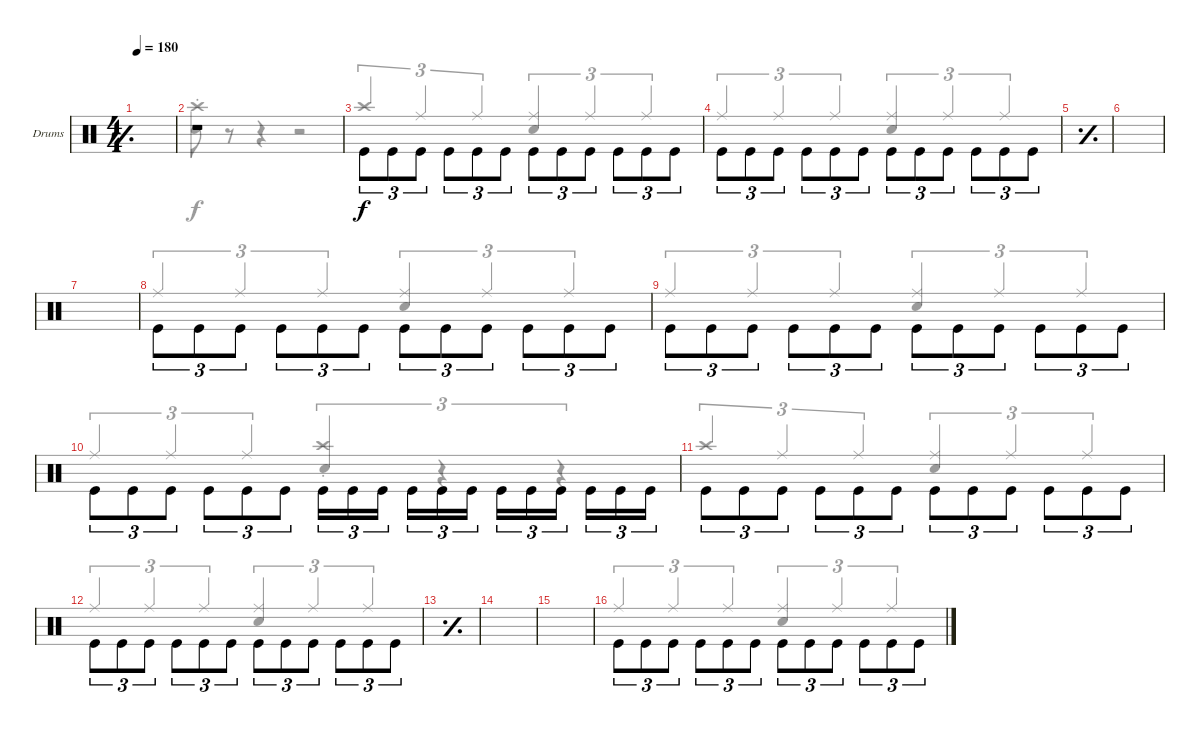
\defaultSystemsLayout 4
\bracketExtendMode groupsimilarinstruments
\multiBarRest
\firstSystemTrackNameOrientation horizontal
\otherSystemsTrackNameOrientation horizontal
\track ("Drumkit" "Drums") {instrument percussion}
\staff {score}
\articulation defaults
\voice
\ts (4 4)
\tempo 180
\clef neutral
\simile simple
\ks c
|
r.1 |
"Kick (hit)".8{tu (3 2) beam invert} "Kick (hit)".8{tu (3 2) beam invert} "Kick (hit)".8{tu (3 2) beam invert} "Kick (hit)".8{tu (3 2) beam invert} "Kick (hit)".8{tu (3 2) beam invert} "Kick (hit)".8{tu (3 2) beam invert} "Kick (hit)".8{tu (3 2) beam invert} "Kick (hit)".8{tu (3 2) beam invert} "Kick (hit)".8{tu (3 2) beam invert} "Kick (hit)".8{tu (3 2) beam invert} "Kick (hit)".8{tu (3 2) beam invert} "Kick (hit)".8{tu (3 2) beam invert} |
"Kick (hit)".8{tu (3 2) beam invert} "Kick (hit)".8{tu (3 2) beam invert} "Kick (hit)".8{tu (3 2) beam invert} "Kick (hit)".8{tu (3 2) beam invert} "Kick (hit)".8{tu (3 2) beam invert} "Kick (hit)".8{tu (3 2) beam invert} "Kick (hit)".8{tu (3 2) beam invert} "Kick (hit)".8{tu (3 2) beam invert} "Kick (hit)".8{tu (3 2) beam invert} "Kick (hit)".8{tu (3 2) beam invert} "Kick (hit)".8{tu (3 2) beam invert} "Kick (hit)".8{tu (3 2) beam invert} |
\simile simple
|
|
|
\simile none "Kick (hit)".8{tu (3 2) beam invert} "Kick (hit)".8{tu (3 2) beam invert} "Kick (hit)".8{tu (3 2) beam invert} "Kick (hit)".8{tu (3 2) beam invert} "Kick (hit)".8{tu (3 2) beam invert} "Kick (hit)".8{tu (3 2) beam invert} "Kick (hit)".8{tu (3 2) beam invert} "Kick (hit)".8{tu (3 2) beam invert} "Kick (hit)".8{tu (3 2) beam invert} "Kick (hit)".8{tu (3 2) beam invert} "Kick (hit)".8{tu (3 2) beam invert} "Kick (hit)".8{tu (3 2) beam invert}
|
"Kick (hit)".8{tu (3 2) beam invert} "Kick (hit)".8{tu (3 2) beam invert} "Kick (hit)".8{tu (3 2) beam invert} "Kick (hit)".8{tu (3 2) beam invert} "Kick (hit)".8{tu (3 2) beam invert} "Kick (hit)".8{tu (3 2) beam invert} "Kick (hit)".8{tu (3 2) beam invert} "Kick (hit)".8{tu (3 2) beam invert} "Kick (hit)".8{tu (3 2) beam invert} "Kick (hit)".8{tu (3 2) beam invert} "Kick (hit)".8{tu (3 2) beam invert} "Kick (hit)".8{tu (3 2) beam invert} |
"Kick (hit)".8{tu (3 2) beam invert} "Kick (hit)".8{tu (3 2) beam invert} "Kick (hit)".8{tu (3 2) beam invert} "Kick (hit)".8{tu (3 2) beam invert} "Kick (hit)".8{tu (3 2) beam invert} "Kick (hit)".8{tu (3 2) beam invert} "Kick (hit)".16{tu (3 2)} "Kick (hit)".16{tu (3 2)} "Kick (hit)".16{tu (3 2) beam invert} "Kick (hit)".16{tu (3 2) beam invert} "Kick (hit)".16{tu (3 2) beam invert} "Kick (hit)".16{tu (3 2) beam invert} "Kick (hit)".16{tu (3 2)} "Kick (hit)".16{tu (3 2)} "Kick (hit)".16{tu (3 2) beam invert} "Kick (hit)".16{tu (3 2) beam invert} "Kick (hit)".16{tu (3 2) beam invert} "Kick (hit)".16{tu (3 2) beam invert} |
"Kick (hit)".8{tu (3 2) beam invert} "Kick (hit)".8{tu (3 2) beam invert} "Kick (hit)".8{tu (3 2) beam invert} "Kick (hit)".8{tu (3 2) beam invert} "Kick (hit)".8{tu (3 2) beam invert} "Kick (hit)".8{tu (3 2) beam invert} "Kick (hit)".8{tu (3 2) beam invert} "Kick (hit)".8{tu (3 2) beam invert} "Kick (hit)".8{tu (3 2) beam invert} "Kick (hit)".8{tu (3 2) beam invert} "Kick (hit)".8{tu (3 2) beam invert} "Kick (hit)".8{tu (3 2) beam invert} |
"Kick (hit)".8{tu (3 2) beam invert} "Kick (hit)".8{tu (3 2) beam invert} "Kick (hit)".8{tu (3 2) beam invert} "Kick (hit)".8{tu (3 2) beam invert} "Kick (hit)".8{tu (3 2) beam invert} "Kick (hit)".8{tu (3 2) beam invert} "Kick (hit)".8{tu (3 2) beam invert} "Kick (hit)".8{tu (3 2) beam invert} "Kick (hit)".8{tu (3 2) beam invert} "Kick (hit)".8{tu (3 2) beam invert} "Kick (hit)".8{tu (3 2) beam invert} "Kick (hit)".8{tu (3 2) beam invert} |
\simile simple
|
|
|
\simile none "Kick (hit)".8{tu (3 2) beam invert} "Kick (hit)".8{tu (3 2) beam invert} "Kick (hit)".8{tu (3 2) beam invert} "Kick (hit)".8{tu (3 2) beam invert} "Kick (hit)".8{tu (3 2) beam invert} "Kick (hit)".8{tu (3 2) beam invert} "Kick (hit)".8{tu (3 2) beam invert} "Kick (hit)".8{tu (3 2) beam invert} "Kick (hit)".8{tu (3 2) beam invert} "Kick (hit)".8{tu (3 2) beam invert} "Kick (hit)".8{tu (3 2) beam invert} "Kick (hit)".8{tu (3 2) beam invert}
\voice
\clef neutral
\ottava regular
\simile simple
\ks c
|
\simile none
("Snare (hit) 2" "Crash high (hit)"{st}).8 r.8 r.4 r.2 |
"Crash high (hit)".4{tu (3 2) beam invert} "Ride (middle)".4{tu (3 2) beam invert} "Ride (middle)".4{tu (3 2) beam invert} ("Ride (middle)" "Snare (hit) 2").4{tu (3 2) beam invert} "Ride (middle)".4{tu (3 2) beam invert} "Ride (middle)".4{tu (3 2) beam invert} |
"Ride (middle)".4{tu (3 2) beam invert} "Ride (middle)".4{tu (3 2) beam invert} "Ride (middle)".4{tu (3 2) beam invert} ("Ride (middle)" "Snare (hit) 2").4{tu (3 2) beam invert} "Ride (middle)".4{tu (3 2) beam invert} "Ride (middle)".4{tu (3 2) beam invert} |
\simile simple
|
|
|
\simile none "Ride (middle)".4{tu (3 2) beam invert} "Ride (middle)".4{tu (3 2) beam invert} "Ride (middle)".4{tu (3 2) beam invert}
("Ride (middle)" "Snare (hit) 2").4{tu (3 2) beam invert} "Ride (middle)".4{tu (3 2) beam invert} "Ride (middle)".4{tu (3 2) beam invert} |
"Ride (middle)".4{tu (3 2) beam invert} "Ride (middle)".4{tu (3 2) beam invert} "Ride (middle)".4{tu (3 2) beam invert} ("Ride (middle)" "Snare (hit) 2").4{tu (3 2) beam invert} "Ride (middle)".4{tu (3 2) beam invert} "Ride (middle)".4{tu (3 2) beam invert} |
"Ride (middle)".4{tu (3 2) beam invert} "Ride (middle)".4{tu (3 2) beam invert} "Ride (middle)".4{tu (3 2) beam invert} ("Snare (hit) 2" "Crash high (hit)"{st}).4{tu (3 2) beam invert} r.4{tu (3 2)} r.4{tu (3 2)} |
"Crash high (hit)".4{tu (3 2) beam invert} "Ride (middle)".4{tu (3 2) beam invert} "Ride (middle)".4{tu (3 2) beam invert} ("Ride (middle)" "Snare (hit) 2").4{tu (3 2) beam invert} "Ride (middle)".4{tu (3 2) beam invert} "Ride (middle)".4{tu (3 2) beam invert} |
"Ride (middle)".4{tu (3 2) beam invert} "Ride (middle)".4{tu (3 2) beam invert} "Ride (middle)".4{tu (3 2) beam invert} ("Ride (middle)" "Snare (hit) 2").4{tu (3 2) beam invert} "Ride (middle)".4{tu (3 2) beam invert} "Ride (middle)".4{tu (3 2) beam invert} |
\simile simple
|
|
|
\simile none "Ride (middle)".4{tu (3 2) beam invert} "Ride (middle)".4{tu (3 2) beam invert} "Ride (middle)".4{tu (3 2) beam invert}
("Ride (middle)" "Snare (hit) 2").4{tu (3 2) beam invert} "Ride (middle)".4{tu (3 2) beam invert} "Ride (middle)".4{tu (3 2) beam invert}
